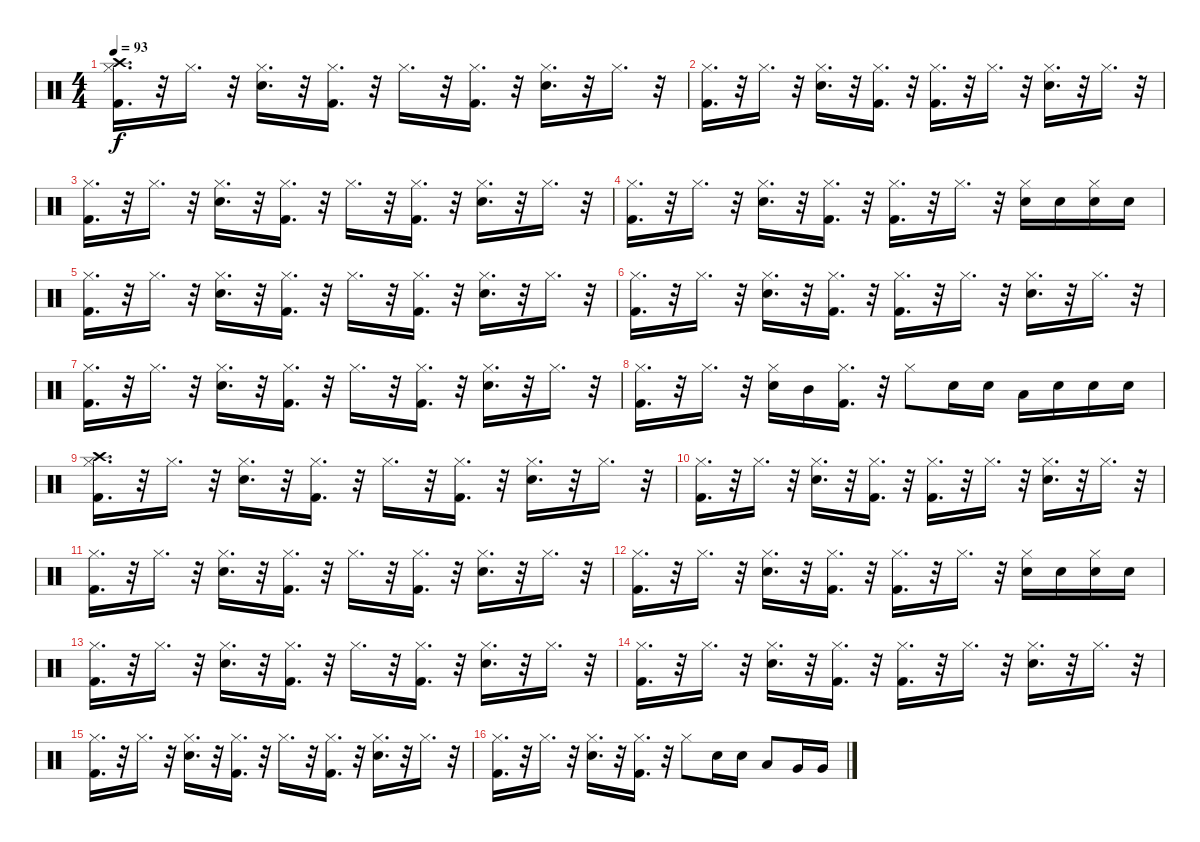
\track "" {instrument percussion}
\staff {score}
\articulation defaults
\ts (4 4)
\tempo 93
\clef neutral
\ks c
("Hi-Hat (closed)" "Crash high (hit)" "Kick (hit) 2").16{d dy f} r.32 "Hi-Hat (closed)".16{d} r.32 ("Hi-Hat (closed)" "Snare (hit) 2").16{d} r.32 ("Hi-Hat (closed)" "Kick (hit) 2").16{d} r.32 "Hi-Hat (closed)".16{d} r.32 ("Hi-Hat (closed)" "Kick (hit) 2").16{d} r.32 ("Hi-Hat (closed)" "Snare (hit) 2").16{d} r.32 "Hi-Hat (closed)".16{d} r.32 |
("Hi-Hat (closed)" "Kick (hit) 2").16{d} r.32 "Hi-Hat (closed)".16{d} r.32 ("Hi-Hat (closed)" "Snare (hit) 2").16{d} r.32 ("Hi-Hat (closed)" "Kick (hit) 2").16{d} r.32 ("Hi-Hat (closed)" "Kick (hit) 2").16{d} r.32 "Hi-Hat (closed)".16{d} r.32 ("Hi-Hat (closed)" "Snare (hit) 2").16{d} r.32 "Hi-Hat (closed)".16{d} r.32 |
("Hi-Hat (closed)" "Kick (hit) 2").16{d} r.32 "Hi-Hat (closed)".16{d} r.32 ("Hi-Hat (closed)" "Snare (hit) 2").16{d} r.32 ("Hi-Hat (closed)" "Kick (hit) 2").16{d} r.32 "Hi-Hat (closed)".16{d} r.32 ("Hi-Hat (closed)" "Kick (hit) 2").16{d} r.32 ("Hi-Hat (closed)" "Snare (hit) 2").16{d} r.32 "Hi-Hat (closed)".16{d} r.32 |
("Hi-Hat (closed)" "Kick (hit) 2").16{d} r.32 "Hi-Hat (closed)".16{d} r.32 ("Hi-Hat (closed)" "Snare (hit) 2").16{d} r.32 ("Hi-Hat (closed)" "Kick (hit) 2").16{d} r.32 ("Hi-Hat (closed)" "Kick (hit) 2").16{d} r.32 "Hi-Hat (closed)".16{d} r.32 ("Hi-Hat (closed)" "Snare (hit) 2").16 "Snare (hit) 2".16 ("Snare (hit) 2" "Hi-Hat (closed)").16 "Snare (hit) 2".16 |
("Hi-Hat (closed)" "Kick (hit) 2").16{d} r.32 "Hi-Hat (closed)".16{d} r.32 ("Hi-Hat (closed)" "Snare (hit) 2").16{d} r.32 ("Hi-Hat (closed)" "Kick (hit) 2").16{d} r.32 "Hi-Hat (closed)".16{d} r.32 ("Hi-Hat (closed)" "Kick (hit) 2").16{d} r.32 ("Hi-Hat (closed)" "Snare (hit) 2").16{d} r.32 "Hi-Hat (closed)".16{d} r.32 |
("Hi-Hat (closed)" "Kick (hit) 2").16{d} r.32 "Hi-Hat (closed)".16{d} r.32 ("Hi-Hat (closed)" "Snare (hit) 2").16{d} r.32 ("Hi-Hat (closed)" "Kick (hit) 2").16{d} r.32 ("Hi-Hat (closed)" "Kick (hit) 2").16{d} r.32 "Hi-Hat (closed)".16{d} r.32 ("Hi-Hat (closed)" "Snare (hit) 2").16{d} r.32 "Hi-Hat (closed)".16{d} r.32 |
("Hi-Hat (closed)" "Kick (hit) 2").16{d} r.32 "Hi-Hat (closed)".16{d} r.32 ("Hi-Hat (closed)" "Snare (hit) 2").16{d} r.32 ("Hi-Hat (closed)" "Kick (hit) 2").16{d} r.32 "Hi-Hat (closed)".16{d} r.32 ("Hi-Hat (closed)" "Kick (hit) 2").16{d} r.32 ("Hi-Hat (closed)" "Snare (hit) 2").16{d} r.32 "Hi-Hat (closed)".16{d} r.32 |
("Hi-Hat (closed)" "Kick (hit) 2").16{d} r.32 "Hi-Hat (closed)".16{d} r.32 ("Hi-Hat (closed)" "Snare (hit) 2").16 "Mid Tom (hit)".16 ("Hi-Hat (closed)" "Kick (hit) 2").16{d} r.32 "Hi-Hat (closed)".8 "Snare (hit) 2".16 "Snare (hit) 2".16 "Low Tom (hit)".16 "Snare (hit) 2".16 "Snare (hit) 2".16 "Snare (hit) 2".16 |
("Hi-Hat (closed)" "Crash high (hit)" "Kick (hit) 2").16{d} r.32 "Hi-Hat (closed)".16{d} r.32 ("Hi-Hat (closed)" "Snare (hit) 2").16{d} r.32 ("Hi-Hat (closed)" "Kick (hit) 2").16{d} r.32 "Hi-Hat (closed)".16{d} r.32 ("Hi-Hat (closed)" "Kick (hit) 2").16{d} r.32 ("Hi-Hat (closed)" "Snare (hit) 2").16{d} r.32 "Hi-Hat (closed)".16{d} r.32 |
("Hi-Hat (closed)" "Kick (hit) 2").16{d} r.32 "Hi-Hat (closed)".16{d} r.32 ("Hi-Hat (closed)" "Snare (hit) 2").16{d} r.32 ("Hi-Hat (closed)" "Kick (hit) 2").16{d} r.32 ("Hi-Hat (closed)" "Kick (hit) 2").16{d} r.32 "Hi-Hat (closed)".16{d} r.32 ("Hi-Hat (closed)" "Snare (hit) 2").16{d} r.32 "Hi-Hat (closed)".16{d} r.32 |
("Hi-Hat (closed)" "Kick (hit) 2").16{d} r.32 "Hi-Hat (closed)".16{d} r.32 ("Hi-Hat (closed)" "Snare (hit) 2").16{d} r.32 ("Hi-Hat (closed)" "Kick (hit) 2").16{d} r.32 "Hi-Hat (closed)".16{d} r.32 ("Hi-Hat (closed)" "Kick (hit) 2").16{d} r.32 ("Hi-Hat (closed)" "Snare (hit) 2").16{d} r.32 "Hi-Hat (closed)".16{d} r.32 |
("Hi-Hat (closed)" "Kick (hit) 2").16{d} r.32 "Hi-Hat (closed)".16{d} r.32 ("Hi-Hat (closed)" "Snare (hit) 2").16{d} r.32 ("Hi-Hat (closed)" "Kick (hit) 2").16{d} r.32 ("Hi-Hat (closed)" "Kick (hit) 2").16{d} r.32 "Hi-Hat (closed)".16{d} r.32 ("Hi-Hat (closed)" "Snare (hit) 2").16 "Snare (hit) 2".16 ("Snare (hit) 2" "Hi-Hat (closed)").16 "Snare (hit) 2".16 |
("Hi-Hat (closed)" "Kick (hit) 2").16{d} r.32 "Hi-Hat (closed)".16{d} r.32 ("Hi-Hat (closed)" "Snare (hit) 2").16{d} r.32 ("Hi-Hat (closed)" "Kick (hit) 2").16{d} r.32 "Hi-Hat (closed)".16{d} r.32 ("Hi-Hat (closed)" "Kick (hit) 2").16{d} r.32 ("Hi-Hat (closed)" "Snare (hit) 2").16{d} r.32 "Hi-Hat (closed)".16{d} r.32 |
("Hi-Hat (closed)" "Kick (hit) 2").16{d} r.32 "Hi-Hat (closed)".16{d} r.32 ("Hi-Hat (closed)" "Snare (hit) 2").16{d} r.32 ("Hi-Hat (closed)" "Kick (hit) 2").16{d} r.32 ("Hi-Hat (closed)" "Kick (hit) 2").16{d} r.32 "Hi-Hat (closed)".16{d} r.32 ("Hi-Hat (closed)" "Snare (hit) 2").16{d} r.32 "Hi-Hat (closed)".16{d} r.32 |
("Hi-Hat (closed)" "Kick (hit) 2").16{d} r.32 "Hi-Hat (closed)".16{d} r.32 ("Hi-Hat (closed)" "Snare (hit) 2").16{d} r.32 ("Hi-Hat (closed)" "Kick (hit) 2").16{d} r.32 "Hi-Hat (closed)".16{d} r.32 ("Hi-Hat (closed)" "Kick (hit) 2").16{d} r.32 ("Hi-Hat (closed)" "Snare (hit) 2").16{d} r.32 "Hi-Hat (closed)".16{d} r.32 |
("Hi-Hat (closed)" "Kick (hit) 2").16{d} r.32 "Hi-Hat (closed)".16{d} r.32 ("Hi-Hat (closed)" "Snare (hit) 2").16{d} r.32 ("Hi-Hat (closed)" "Kick (hit) 2").16{d} r.32 "Hi-Hat (closed)".8 "Snare (hit) 2".16 "Snare (hit) 2".16 "Low Tom (hit)".8 "Very Low Tom (hit)".16 "Very Low Tom (hit)".16
